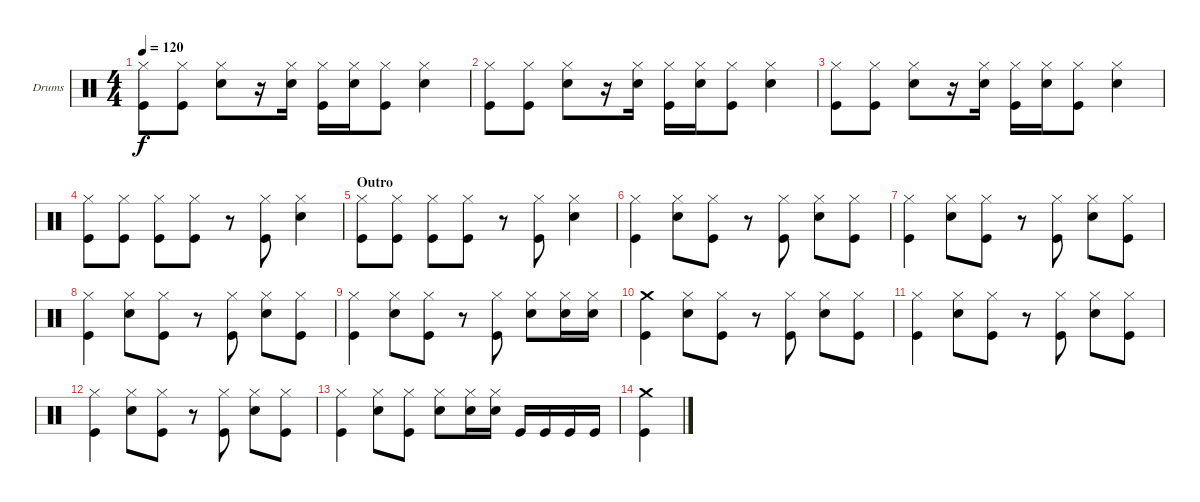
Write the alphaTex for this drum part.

\defaultSystemsLayout 4
\bracketExtendMode groupsimilarinstruments
\firstSystemTrackNameOrientation horizontal
\otherSystemsTrackNameOrientation horizontal
\track ("Drum" "Drums") {instrument percussion}
\staff {score}
\articulation defaults
\ts (4 4)
\tempo 120
\clef neutral
\ks c
("Hi-Hat (closed)" "Kick (hit)").8{dy f} ("Hi-Hat (closed)" "Kick (hit)").8 ("Hi-Hat (closed)" "Snare (hit) 2").8 r.16 ("Hi-Hat (closed)" "Snare (hit) 2").16 ("Hi-Hat (closed)" "Kick (hit)").16 ("Hi-Hat (closed)" "Snare (hit) 2").16 ("Hi-Hat (closed)" "Kick (hit)").8 ("Hi-Hat (closed)" "Snare (hit) 2").4 |
("Hi-Hat (closed)" "Kick (hit)").8 ("Hi-Hat (closed)" "Kick (hit)").8 ("Hi-Hat (closed)" "Snare (hit) 2").8 r.16 ("Hi-Hat (closed)" "Snare (hit) 2").16 ("Hi-Hat (closed)" "Kick (hit)").16 ("Hi-Hat (closed)" "Snare (hit) 2").16 ("Hi-Hat (closed)" "Kick (hit)").8 ("Hi-Hat (closed)" "Snare (hit) 2").4 |
("Hi-Hat (closed)" "Kick (hit)").8 ("Hi-Hat (closed)" "Kick (hit)").8 ("Hi-Hat (closed)" "Snare (hit) 2").8 r.16 ("Hi-Hat (closed)" "Snare (hit) 2").16 ("Hi-Hat (closed)" "Kick (hit)").16 ("Hi-Hat (closed)" "Snare (hit) 2").16 ("Hi-Hat (closed)" "Kick (hit)").8 ("Hi-Hat (closed)" "Snare (hit) 2").4 |
("Hi-Hat (closed)" "Kick (hit)").8 ("Hi-Hat (closed)" "Kick (hit)").8 ("Hi-Hat (closed)" "Kick (hit)").8 ("Hi-Hat (closed)" "Kick (hit)").8 r.8 ("Hi-Hat (closed)" "Kick (hit)").8 ("Hi-Hat (closed)" "Snare (hit) 2").4 |
\section ("" "Outro")
("Hi-Hat (closed)" "Kick (hit)").8 ("Hi-Hat (closed)" "Kick (hit)").8 ("Hi-Hat (closed)" "Kick (hit)").8 ("Hi-Hat (closed)" "Kick (hit)").8 r.8 ("Hi-Hat (closed)" "Kick (hit)").8 ("Hi-Hat (closed)" "Snare (hit) 2").4 |
("Hi-Hat (closed)" "Kick (hit)").4 ("Hi-Hat (closed)" "Snare (hit) 2").8 ("Hi-Hat (closed)" "Kick (hit)").8 r.8 ("Hi-Hat (closed)" "Kick (hit)").8 ("Hi-Hat (closed)" "Snare (hit) 2").8 ("Hi-Hat (closed)" "Kick (hit)").8 |
("Hi-Hat (closed)" "Kick (hit)").4 ("Hi-Hat (closed)" "Snare (hit) 2").8 ("Hi-Hat (closed)" "Kick (hit)").8 r.8 ("Hi-Hat (closed)" "Kick (hit)").8 ("Hi-Hat (closed)" "Snare (hit) 2").8 ("Hi-Hat (closed)" "Kick (hit)").8 |
("Hi-Hat (closed)" "Kick (hit)").4 ("Hi-Hat (closed)" "Snare (hit) 2").8 ("Hi-Hat (closed)" "Kick (hit)").8 r.8 ("Hi-Hat (closed)" "Kick (hit)").8 ("Hi-Hat (closed)" "Snare (hit) 2").8 ("Hi-Hat (closed)" "Kick (hit)").8 |
("Hi-Hat (closed)" "Kick (hit)").4 ("Hi-Hat (closed)" "Snare (hit) 2").8 ("Hi-Hat (closed)" "Kick (hit)").8 r.8 ("Hi-Hat (closed)" "Kick (hit)").8 ("Hi-Hat (closed)" "Snare (hit) 2").8 ("Hi-Hat (closed)" "Snare (hit) 2").16 ("Hi-Hat (closed)" "Snare (hit) 2").16 |
("Crash medium (hit)" "Kick (hit)").4 ("Hi-Hat (closed)" "Snare (hit) 2").8 ("Hi-Hat (closed)" "Kick (hit)").8 r.8 ("Hi-Hat (closed)" "Kick (hit)").8 ("Hi-Hat (closed)" "Snare (hit) 2").8 ("Hi-Hat (closed)" "Kick (hit)").8 |
("Hi-Hat (closed)" "Kick (hit)").4 ("Hi-Hat (closed)" "Snare (hit) 2").8 ("Hi-Hat (closed)" "Kick (hit)").8 r.8 ("Hi-Hat (closed)" "Kick (hit)").8 ("Hi-Hat (closed)" "Snare (hit) 2").8 ("Hi-Hat (closed)" "Kick (hit)").8 |
("Hi-Hat (closed)" "Kick (hit)").4 ("Hi-Hat (closed)" "Snare (hit) 2").8 ("Hi-Hat (closed)" "Kick (hit)").8 r.8 ("Hi-Hat (closed)" "Kick (hit)").8 ("Hi-Hat (closed)" "Snare (hit) 2").8 ("Hi-Hat (closed)" "Kick (hit)").8 |
("Hi-Hat (closed)" "Kick (hit)").4 ("Hi-Hat (closed)" "Snare (hit) 2").8 ("Hi-Hat (closed)" "Kick (hit)").8 ("Hi-Hat (closed)" "Snare (hit) 2").8 ("Hi-Hat (closed)" "Snare (hit) 2").16 ("Hi-Hat (closed)" "Snare (hit) 2").16 "Kick (hit)".16 "Kick (hit)".16 "Kick (hit)".16 "Kick (hit)".16 |
("Crash medium (hit)" "Kick (hit)").4
